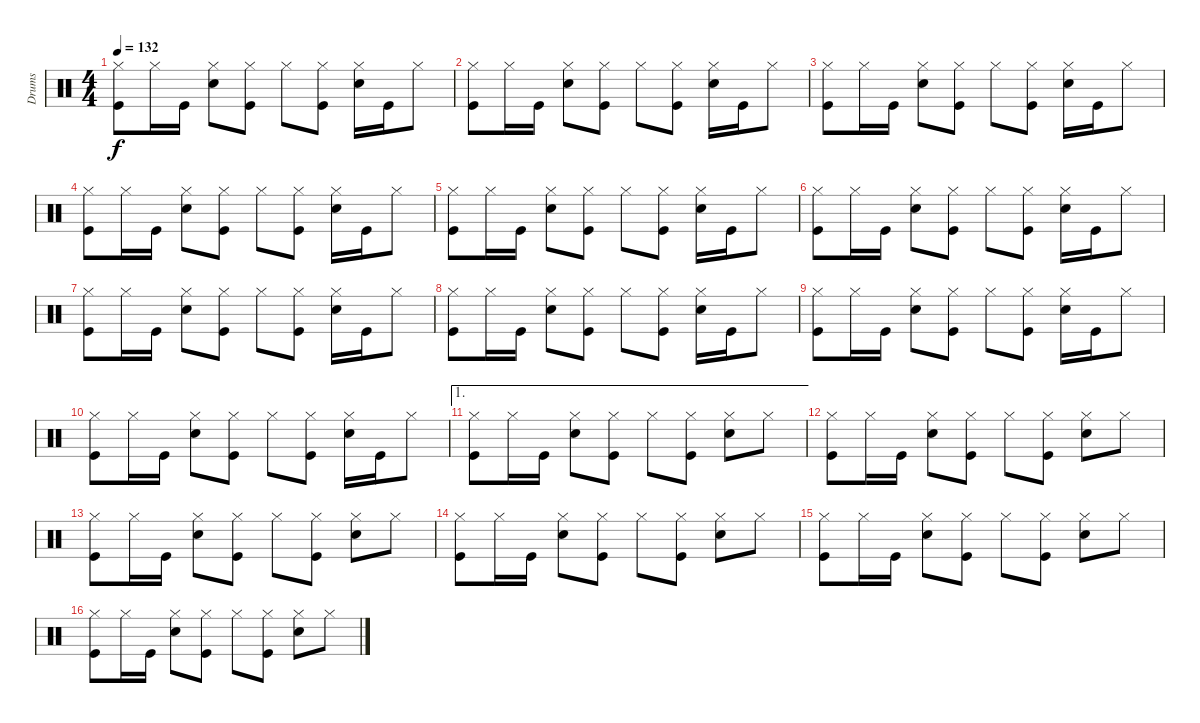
\track ("Drums" "Drums") {instrument percussion}
\staff {score}
\articulation defaults
\ts (4 4)
\tempo 132
\clef neutral
\ks c
("Hi-Hat (closed)" "Kick (hit)").8{dy f} "Hi-Hat (closed)".16 "Kick (hit)".16 ("Hi-Hat (closed)" "Electric Snare (hit)").8 ("Hi-Hat (closed)" "Kick (hit)").8 "Hi-Hat (closed)".8 ("Hi-Hat (closed)" "Kick (hit)").8 ("Hi-Hat (closed)" "Electric Snare (hit)").16 "Kick (hit)".16 "Hi-Hat (closed)".8 |
("Hi-Hat (closed)" "Kick (hit)").8 "Hi-Hat (closed)".16 "Kick (hit)".16 ("Hi-Hat (closed)" "Electric Snare (hit)").8 ("Hi-Hat (closed)" "Kick (hit)").8 "Hi-Hat (closed)".8 ("Hi-Hat (closed)" "Kick (hit)").8 ("Hi-Hat (closed)" "Electric Snare (hit)").16 "Kick (hit)".16 "Hi-Hat (closed)".8 |
("Hi-Hat (closed)" "Kick (hit)").8 "Hi-Hat (closed)".16 "Kick (hit)".16 ("Hi-Hat (closed)" "Electric Snare (hit)").8 ("Hi-Hat (closed)" "Kick (hit)").8 "Hi-Hat (closed)".8 ("Hi-Hat (closed)" "Kick (hit)").8 ("Hi-Hat (closed)" "Electric Snare (hit)").16 "Kick (hit)".16 "Hi-Hat (closed)".8 |
("Hi-Hat (closed)" "Kick (hit)").8 "Hi-Hat (closed)".16 "Kick (hit)".16 ("Hi-Hat (closed)" "Electric Snare (hit)").8 ("Hi-Hat (closed)" "Kick (hit)").8 "Hi-Hat (closed)".8 ("Hi-Hat (closed)" "Kick (hit)").8 ("Hi-Hat (closed)" "Electric Snare (hit)").16 "Kick (hit)".16 "Hi-Hat (closed)".8 |
("Hi-Hat (closed)" "Kick (hit)").8 "Hi-Hat (closed)".16 "Kick (hit)".16 ("Hi-Hat (closed)" "Electric Snare (hit)").8 ("Hi-Hat (closed)" "Kick (hit)").8 "Hi-Hat (closed)".8 ("Hi-Hat (closed)" "Kick (hit)").8 ("Hi-Hat (closed)" "Electric Snare (hit)").16 "Kick (hit)".16 "Hi-Hat (closed)".8 |
("Hi-Hat (closed)" "Kick (hit)").8 "Hi-Hat (closed)".16 "Kick (hit)".16 ("Hi-Hat (closed)" "Electric Snare (hit)").8 ("Hi-Hat (closed)" "Kick (hit)").8 "Hi-Hat (closed)".8 ("Hi-Hat (closed)" "Kick (hit)").8 ("Hi-Hat (closed)" "Electric Snare (hit)").16 "Kick (hit)".16 "Hi-Hat (closed)".8 |
("Hi-Hat (closed)" "Kick (hit)").8 "Hi-Hat (closed)".16 "Kick (hit)".16 ("Hi-Hat (closed)" "Electric Snare (hit)").8 ("Hi-Hat (closed)" "Kick (hit)").8 "Hi-Hat (closed)".8 ("Hi-Hat (closed)" "Kick (hit)").8 ("Hi-Hat (closed)" "Electric Snare (hit)").16 "Kick (hit)".16 "Hi-Hat (closed)".8 |
("Hi-Hat (closed)" "Kick (hit)").8 "Hi-Hat (closed)".16 "Kick (hit)".16 ("Hi-Hat (closed)" "Electric Snare (hit)").8 ("Hi-Hat (closed)" "Kick (hit)").8 "Hi-Hat (closed)".8 ("Hi-Hat (closed)" "Kick (hit)").8 ("Hi-Hat (closed)" "Electric Snare (hit)").16 "Kick (hit)".16 "Hi-Hat (closed)".8 |
("Hi-Hat (closed)" "Kick (hit)").8 "Hi-Hat (closed)".16 "Kick (hit)".16 ("Hi-Hat (closed)" "Electric Snare (hit)").8 ("Hi-Hat (closed)" "Kick (hit)").8 "Hi-Hat (closed)".8 ("Hi-Hat (closed)" "Kick (hit)").8 ("Hi-Hat (closed)" "Electric Snare (hit)").16 "Kick (hit)".16 "Hi-Hat (closed)".8 |
("Hi-Hat (closed)" "Kick (hit)").8 "Hi-Hat (closed)".16 "Kick (hit)".16 ("Hi-Hat (closed)" "Electric Snare (hit)").8 ("Hi-Hat (closed)" "Kick (hit)").8 "Hi-Hat (closed)".8 ("Hi-Hat (closed)" "Kick (hit)").8 ("Hi-Hat (closed)" "Electric Snare (hit)").16 "Kick (hit)".16 "Hi-Hat (closed)".8 |
\ae 1
("Hi-Hat (closed)" "Kick (hit)").8 "Hi-Hat (closed)".16 "Kick (hit)".16 ("Hi-Hat (closed)" "Electric Snare (hit)").8 ("Hi-Hat (closed)" "Kick (hit)").8 "Hi-Hat (closed)".8 ("Hi-Hat (closed)" "Kick (hit)").8 ("Hi-Hat (closed)" "Electric Snare (hit)").8 "Hi-Hat (closed)".8 |
("Hi-Hat (closed)" "Kick (hit)").8 "Hi-Hat (closed)".16 "Kick (hit)".16 ("Hi-Hat (closed)" "Electric Snare (hit)").8 ("Hi-Hat (closed)" "Kick (hit)").8 "Hi-Hat (closed)".8 ("Hi-Hat (closed)" "Kick (hit)").8 ("Hi-Hat (closed)" "Electric Snare (hit)").8 "Hi-Hat (closed)".8 |
("Hi-Hat (closed)" "Kick (hit)").8 "Hi-Hat (closed)".16 "Kick (hit)".16 ("Hi-Hat (closed)" "Electric Snare (hit)").8 ("Hi-Hat (closed)" "Kick (hit)").8 "Hi-Hat (closed)".8 ("Hi-Hat (closed)" "Kick (hit)").8 ("Hi-Hat (closed)" "Electric Snare (hit)").8 "Hi-Hat (closed)".8 |
("Hi-Hat (closed)" "Kick (hit)").8 "Hi-Hat (closed)".16 "Kick (hit)".16 ("Hi-Hat (closed)" "Electric Snare (hit)").8 ("Hi-Hat (closed)" "Kick (hit)").8 "Hi-Hat (closed)".8 ("Hi-Hat (closed)" "Kick (hit)").8 ("Hi-Hat (closed)" "Electric Snare (hit)").8 "Hi-Hat (closed)".8 |
("Hi-Hat (closed)" "Kick (hit)").8 "Hi-Hat (closed)".16 "Kick (hit)".16 ("Hi-Hat (closed)" "Electric Snare (hit)").8 ("Hi-Hat (closed)" "Kick (hit)").8 "Hi-Hat (closed)".8 ("Hi-Hat (closed)" "Kick (hit)").8 ("Hi-Hat (closed)" "Electric Snare (hit)").8 "Hi-Hat (closed)".8 |
("Hi-Hat (closed)" "Kick (hit)").8 "Hi-Hat (closed)".16 "Kick (hit)".16 ("Hi-Hat (closed)" "Electric Snare (hit)").8 ("Hi-Hat (closed)" "Kick (hit)").8 "Hi-Hat (closed)".8 ("Hi-Hat (closed)" "Kick (hit)").8 ("Hi-Hat (closed)" "Electric Snare (hit)").8 "Hi-Hat (closed)".8
